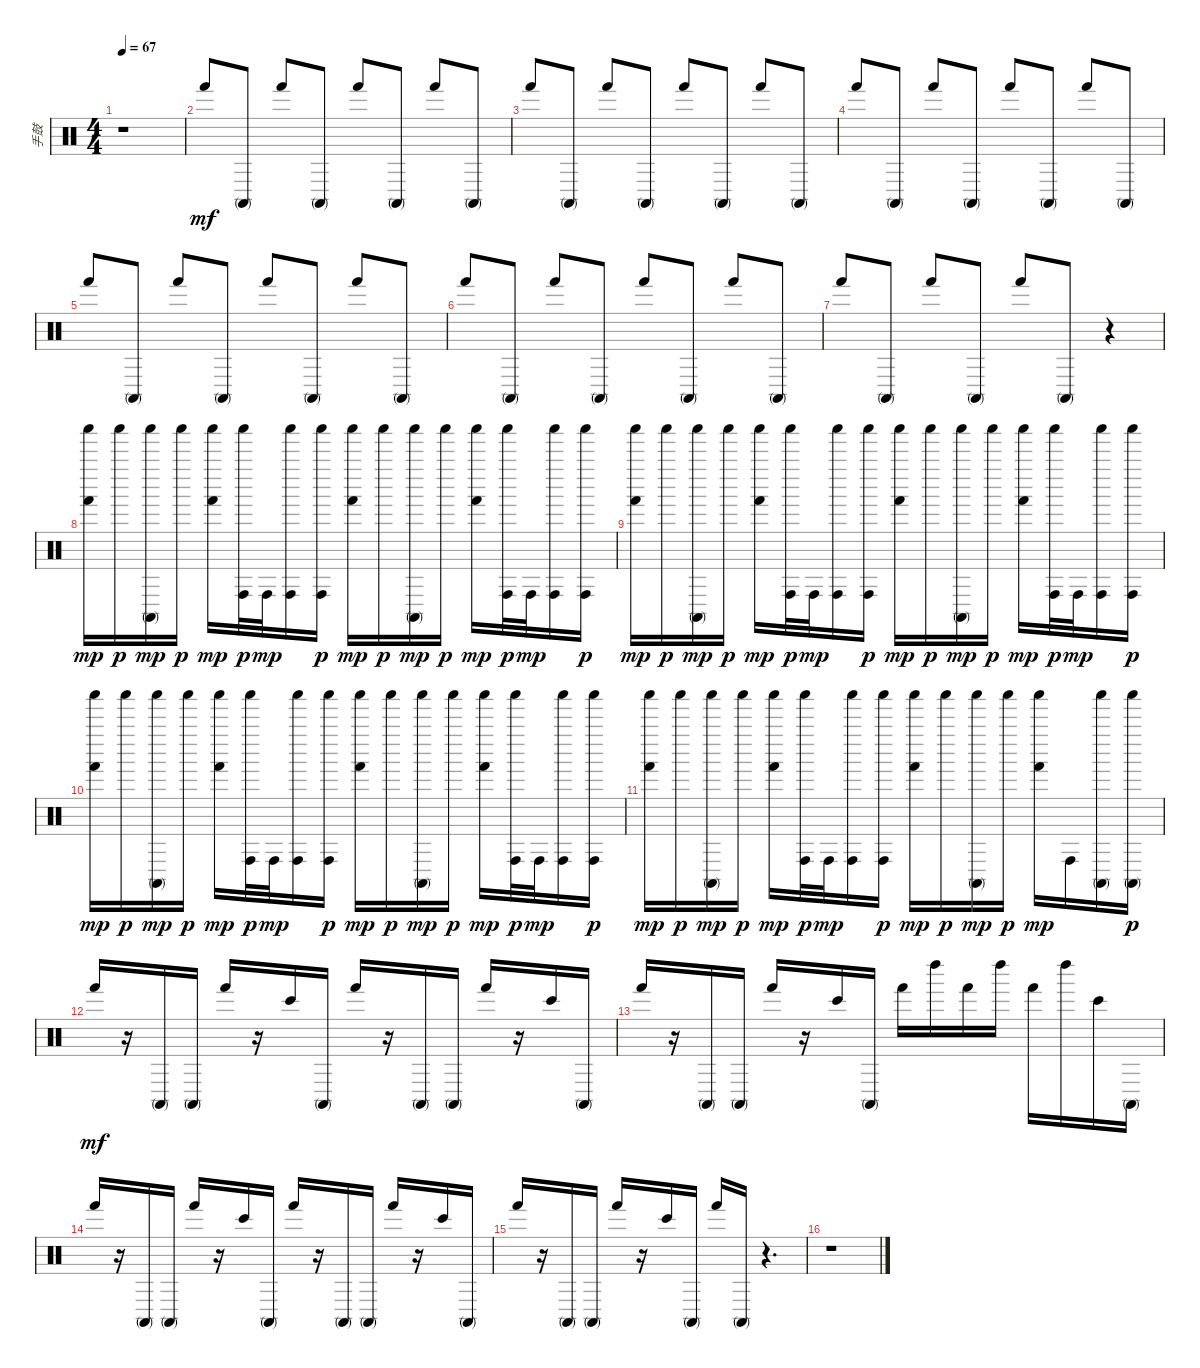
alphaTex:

\track ("手鼓" "手鼓") {instrument percussion}
\staff {score}
\articulation defaults
\ts (4 4)
\tempo 67
\clef neutral
\ks c
r.1{dy mf} |
"Hand (hit)".8 "Conga high (mute)".8 "Hand (hit)".8 "Conga high (mute)".8 "Hand (hit)".8 "Conga high (mute)".8 "Hand (hit)".8 "Conga high (mute)".8 |
"Hand (hit)".8 "Conga high (mute)".8 "Hand (hit)".8 "Conga high (mute)".8 "Hand (hit)".8 "Conga high (mute)".8 "Hand (hit)".8 "Conga high (mute)".8 |
"Hand (hit)".8 "Conga high (mute)".8 "Hand (hit)".8 "Conga high (mute)".8 "Hand (hit)".8 "Conga high (mute)".8 "Hand (hit)".8 "Conga high (mute)".8 |
"Hand (hit)".8 "Conga high (mute)".8 "Hand (hit)".8 "Conga high (mute)".8 "Hand (hit)".8 "Conga high (mute)".8 "Hand (hit)".8 "Conga high (mute)".8 |
"Hand (hit)".8 "Conga high (mute)".8 "Hand (hit)".8 "Conga high (mute)".8 "Hand (hit)".8 "Conga high (mute)".8 "Hand (hit)".8 "Conga high (mute)".8 |
"Hand (hit)".8 "Conga high (mute)".8 "Hand (hit)".8 "Conga high (mute)".8 "Hand (hit)".8 "Conga high (mute)".8 r.4 |
("Hand (hit)" "Shaker (hit)").16{dy mp} "Shaker (hit)".16{dy p} ("Conga high (mute)" "Shaker (hit)").16{dy mp} "Shaker (hit)".16{dy p} ("Hand (hit)" "Shaker (hit)").16{dy mp} ("Conga high (hit)" "Shaker (hit)").32{dy p} "Conga high (hit)".32{dy mp} ("Conga high (hit)" "Shaker (hit)").16 ("Conga high (hit)" "Shaker (hit)").16{dy p} ("Hand (hit)" "Shaker (hit)").16{dy mp} "Shaker (hit)".16{dy p} ("Conga high (mute)" "Shaker (hit)").16{dy mp} "Shaker (hit)".16{dy p} ("Hand (hit)" "Shaker (hit)").16{dy mp} ("Conga high (hit)" "Shaker (hit)").32{dy p} "Conga high (hit)".32{dy mp} ("Conga high (hit)" "Shaker (hit)").16 ("Conga high (hit)" "Shaker (hit)").16{dy p} |
("Hand (hit)" "Shaker (hit)").16{dy mp} "Shaker (hit)".16{dy p} ("Conga high (mute)" "Shaker (hit)").16{dy mp} "Shaker (hit)".16{dy p} ("Hand (hit)" "Shaker (hit)").16{dy mp} ("Conga high (hit)" "Shaker (hit)").32{dy p} "Conga high (hit)".32{dy mp} ("Conga high (hit)" "Shaker (hit)").16 ("Conga high (hit)" "Shaker (hit)").16{dy p} ("Hand (hit)" "Shaker (hit)").16{dy mp} "Shaker (hit)".16{dy p} ("Conga high (mute)" "Shaker (hit)").16{dy mp} "Shaker (hit)".16{dy p} ("Hand (hit)" "Shaker (hit)").16{dy mp} ("Conga high (hit)" "Shaker (hit)").32{dy p} "Conga high (hit)".32{dy mp} ("Conga high (hit)" "Shaker (hit)").16 ("Conga high (hit)" "Shaker (hit)").16{dy p} |
("Hand (hit)" "Shaker (hit)").16{dy mp} "Shaker (hit)".16{dy p} ("Conga high (mute)" "Shaker (hit)").16{dy mp} "Shaker (hit)".16{dy p} ("Hand (hit)" "Shaker (hit)").16{dy mp} ("Conga high (hit)" "Shaker (hit)").32{dy p} "Conga high (hit)".32{dy mp} ("Conga high (hit)" "Shaker (hit)").16 ("Conga high (hit)" "Shaker (hit)").16{dy p} ("Hand (hit)" "Shaker (hit)").16{dy mp} "Shaker (hit)".16{dy p} ("Conga high (mute)" "Shaker (hit)").16{dy mp} "Shaker (hit)".16{dy p} ("Hand (hit)" "Shaker (hit)").16{dy mp} ("Conga high (hit)" "Shaker (hit)").32{dy p} "Conga high (hit)".32{dy mp} ("Conga high (hit)" "Shaker (hit)").16 ("Conga high (hit)" "Shaker (hit)").16{dy p} |
("Hand (hit)" "Shaker (hit)").16{dy mp} "Shaker (hit)".16{dy p} ("Conga high (mute)" "Shaker (hit)").16{dy mp} "Shaker (hit)".16{dy p} ("Hand (hit)" "Shaker (hit)").16{dy mp} ("Conga high (hit)" "Shaker (hit)").32{dy p} "Conga high (hit)".32{dy mp} ("Conga high (hit)" "Shaker (hit)").16 ("Conga high (hit)" "Shaker (hit)").16{dy p} ("Hand (hit)" "Shaker (hit)").16{dy mp} "Shaker (hit)".16{dy p} ("Conga high (mute)" "Shaker (hit)").16{dy mp} "Shaker (hit)".16{dy p} ("Hand (hit)" "Shaker (hit)").16{dy mp} "Conga high (hit)".16 ("Conga high (mute)" "Shaker (hit)").16 ("Conga high (mute)" "Shaker (hit)").16{dy p} |
"Hand (hit)".16{dy mf} r.16 "Conga high (mute)".16 "Conga high (mute)".16 "Hand (hit)".16 r.16 "Bongo High (hit)".16 "Conga high (mute)".16 "Hand (hit)".16 r.16 "Conga high (mute)".16 "Conga high (mute)".16 "Hand (hit)".16 r.16 "Bongo High (hit)".16 "Conga high (mute)".16 |
"Hand (hit)".16 r.16 "Conga high (mute)".16 "Conga high (mute)".16 "Hand (hit)".16 r.16 "Bongo High (hit)".16 "Conga high (mute)".16 "Hand (hit)".16 "Left Maraca (hit)".16 "Hand (hit)".16 "Left Maraca (hit)".16 "Hand (hit)".16 "Left Maraca (hit)".16 "Bongo High (hit)".16 "Conga high (mute)".16 |
"Hand (hit)".16 r.16 "Conga high (mute)".16 "Conga high (mute)".16 "Hand (hit)".16 r.16 "Bongo High (hit)".16 "Conga high (mute)".16 "Hand (hit)".16 r.16 "Conga high (mute)".16 "Conga high (mute)".16 "Hand (hit)".16 r.16 "Bongo High (hit)".16 "Conga high (mute)".16 |
"Hand (hit)".16 r.16 "Conga high (mute)".16 "Conga high (mute)".16 "Hand (hit)".16 r.16 "Bongo High (hit)".16 "Conga high (mute)".16 "Hand (hit)".16 "Conga high (mute)".16 r.4{d} |
r.1
